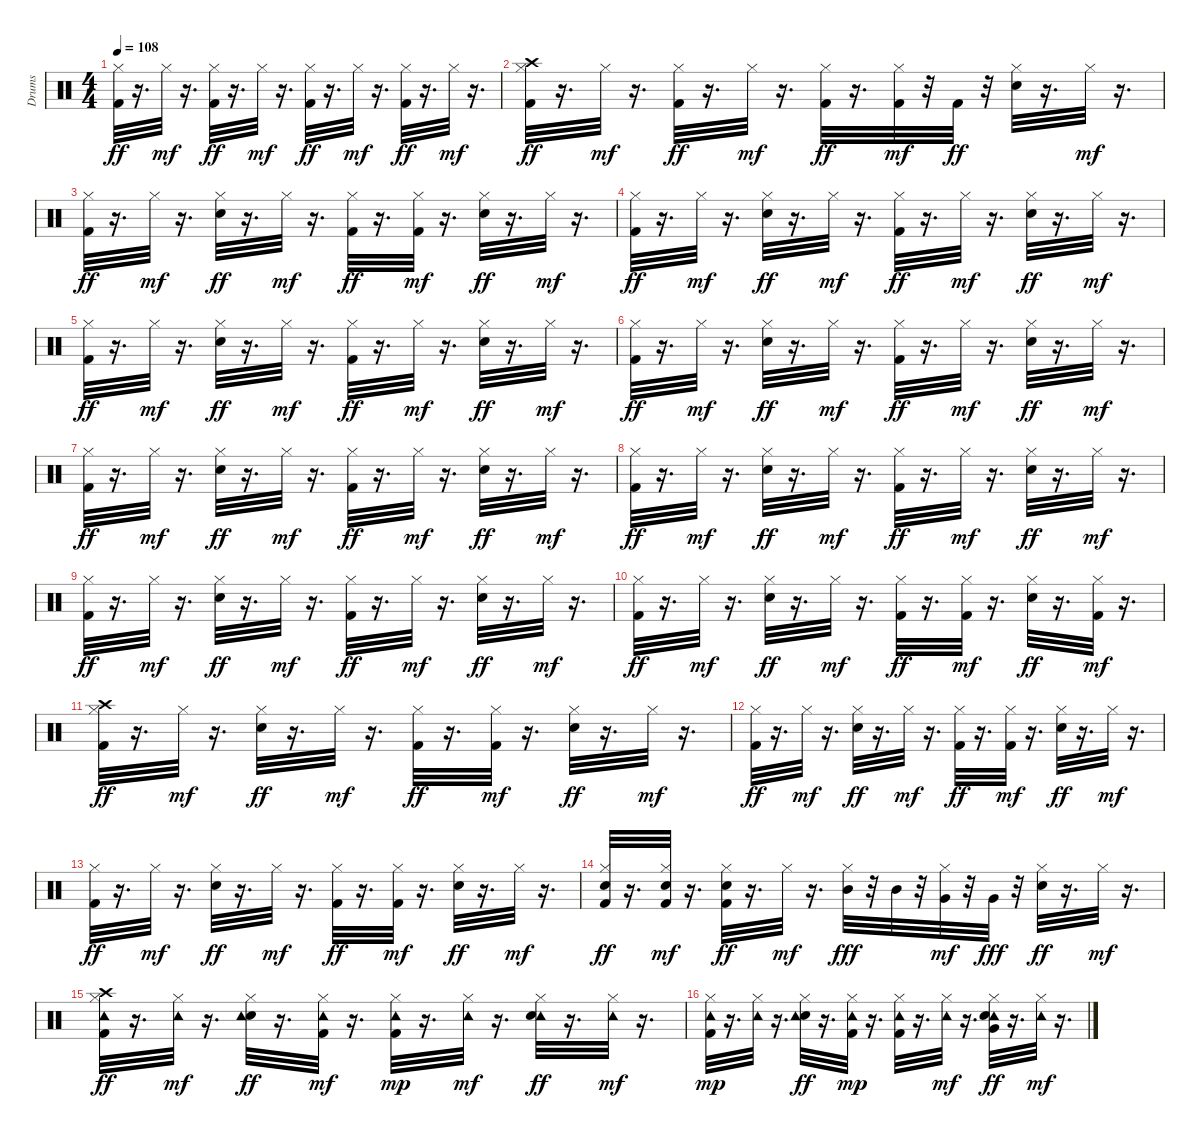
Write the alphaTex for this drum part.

\track ("Drums               " "Drums     ") {instrument percussion}
\staff {score}
\articulation defaults
\ts (4 4)
\tempo 108
\clef neutral
\ks c
("Kick (hit) 2" "Hi-Hat (closed)").32{dy ff} r.16{d} "Hi-Hat (closed)".32{dy mf} r.16{d} ("Kick (hit) 2" "Hi-Hat (closed)").32{dy ff} r.16{d} "Hi-Hat (closed)".32{dy mf} r.16{d} ("Kick (hit) 2" "Hi-Hat (closed)").32{dy ff} r.16{d} "Hi-Hat (closed)".32{dy mf} r.16{d} ("Kick (hit) 2" "Hi-Hat (closed)").32{dy ff} r.16{d} "Hi-Hat (closed)".32{dy mf} r.16{d} |
("Kick (hit) 2" "Hi-Hat (closed)" "Crash high (hit)").32{dy ff} r.16{d} "Hi-Hat (closed)".32{dy mf} r.16{d} ("Kick (hit) 2" "Hi-Hat (closed)").32{dy ff} r.16{d} "Hi-Hat (closed)".32{dy mf} r.16{d} ("Kick (hit) 2" "Hi-Hat (closed)").32{dy ff} r.16{d} ("Kick (hit) 2" "Hi-Hat (closed)").32{dy mf} r.32 "Kick (hit) 2".32{dy ff} r.32 ("Snare (hit) 2" "Hi-Hat (closed)").32 r.16{d} "Hi-Hat (closed)".32{dy mf} r.16{d} |
("Kick (hit) 2" "Hi-Hat (closed)").32{dy ff} r.16{d} "Hi-Hat (closed)".32{dy mf} r.16{d} ("Snare (hit) 2" "Hi-Hat (closed)").32{dy ff} r.16{d} "Hi-Hat (closed)".32{dy mf} r.16{d} ("Hi-Hat (closed)" "Kick (hit) 2").32{dy ff} r.16{d} ("Kick (hit) 2" "Hi-Hat (closed)").32{dy mf} r.16{d} ("Snare (hit) 2" "Hi-Hat (closed)").32{dy ff} r.16{d} "Hi-Hat (closed)".32{dy mf} r.16{d} |
("Kick (hit) 2" "Hi-Hat (closed)").32{dy ff} r.16{d} "Hi-Hat (closed)".32{dy mf} r.16{d} ("Snare (hit) 2" "Hi-Hat (closed)").32{dy ff} r.16{d} "Hi-Hat (closed)".32{dy mf} r.16{d} ("Kick (hit) 2" "Hi-Hat (closed)").32{dy ff} r.16{d} "Hi-Hat (closed)".32{dy mf} r.16{d} ("Snare (hit) 2" "Hi-Hat (closed)").32{dy ff} r.16{d} "Hi-Hat (closed)".32{dy mf} r.16{d} |
("Kick (hit) 2" "Hi-Hat (closed)").32{dy ff} r.16{d} "Hi-Hat (closed)".32{dy mf} r.16{d} ("Snare (hit) 2" "Hi-Hat (closed)").32{dy ff} r.16{d} "Hi-Hat (closed)".32{dy mf} r.16{d} ("Kick (hit) 2" "Hi-Hat (closed)").32{dy ff} r.16{d} "Hi-Hat (closed)".32{dy mf} r.16{d} ("Snare (hit) 2" "Hi-Hat (closed)").32{dy ff} r.16{d} "Hi-Hat (closed)".32{dy mf} r.16{d} |
("Kick (hit) 2" "Hi-Hat (closed)").32{dy ff} r.16{d} "Hi-Hat (closed)".32{dy mf} r.16{d} ("Hi-Hat (closed)" "Snare (hit) 2").32{dy ff} r.16{d} "Hi-Hat (closed)".32{dy mf} r.16{d} ("Kick (hit) 2" "Hi-Hat (closed)").32{dy ff} r.16{d} "Hi-Hat (closed)".32{dy mf} r.16{d} ("Snare (hit) 2" "Hi-Hat (closed)").32{dy ff} r.16{d} "Hi-Hat (closed)".32{dy mf} r.16{d} |
("Kick (hit) 2" "Hi-Hat (closed)").32{dy ff} r.16{d} "Hi-Hat (closed)".32{dy mf} r.16{d} ("Snare (hit) 2" "Hi-Hat (closed)").32{dy ff} r.16{d} "Hi-Hat (closed)".32{dy mf} r.16{d} ("Kick (hit) 2" "Hi-Hat (closed)").32{dy ff} r.16{d} "Hi-Hat (closed)".32{dy mf} r.16{d} ("Snare (hit) 2" "Hi-Hat (closed)").32{dy ff} r.16{d} "Hi-Hat (closed)".32{dy mf} r.16{d} |
("Kick (hit) 2" "Hi-Hat (closed)").32{dy ff} r.16{d} "Hi-Hat (closed)".32{dy mf} r.16{d} ("Snare (hit) 2" "Hi-Hat (closed)").32{dy ff} r.16{d} "Hi-Hat (closed)".32{dy mf} r.16{d} ("Kick (hit) 2" "Hi-Hat (closed)").32{dy ff} r.16{d} "Hi-Hat (closed)".32{dy mf} r.16{d} ("Snare (hit) 2" "Hi-Hat (closed)").32{dy ff} r.16{d} "Hi-Hat (closed)".32{dy mf} r.16{d} |
("Hi-Hat (closed)" "Kick (hit) 2").32{dy ff} r.16{d} "Hi-Hat (closed)".32{dy mf} r.16{d} ("Snare (hit) 2" "Hi-Hat (closed)").32{dy ff} r.16{d} "Hi-Hat (closed)".32{dy mf} r.16{d} ("Kick (hit) 2" "Hi-Hat (closed)").32{dy ff} r.16{d} "Hi-Hat (closed)".32{dy mf} r.16{d} ("Snare (hit) 2" "Hi-Hat (closed)").32{dy ff} r.16{d} "Hi-Hat (closed)".32{dy mf} r.16{d} |
("Kick (hit) 2" "Hi-Hat (closed)").32{dy ff} r.16{d} "Hi-Hat (closed)".32{dy mf} r.16{d} ("Snare (hit) 2" "Hi-Hat (closed)").32{dy ff} r.16{d} "Hi-Hat (closed)".32{dy mf} r.16{d} ("Kick (hit) 2" "Hi-Hat (closed)").32{dy ff} r.16{d} ("Kick (hit) 2" "Hi-Hat (closed)").32{dy mf} r.16{d} ("Snare (hit) 2" "Hi-Hat (closed)").32{dy ff} r.16{d} ("Kick (hit) 2" "Hi-Hat (closed)").32{dy mf} r.16{d} |
("Kick (hit) 2" "Crash high (hit)" "Hi-Hat (closed)").32{dy ff} r.16{d} "Hi-Hat (closed)".32{dy mf} r.16{d} ("Snare (hit) 2" "Hi-Hat (closed)").32{dy ff} r.16{d} "Hi-Hat (closed)".32{dy mf} r.16{d} ("Kick (hit) 2" "Hi-Hat (closed)").32{dy ff} r.16{d} ("Kick (hit) 2" "Hi-Hat (closed)").32{dy mf} r.16{d} ("Hi-Hat (closed)" "Snare (hit) 2").32{dy ff} r.16{d} "Hi-Hat (closed)".32{dy mf} r.16{d} |
("Kick (hit) 2" "Hi-Hat (closed)").32{dy ff} r.16{d} "Hi-Hat (closed)".32{dy mf} r.16{d} ("Snare (hit) 2" "Hi-Hat (closed)").32{dy ff} r.16{d} "Hi-Hat (closed)".32{dy mf} r.16{d} ("Kick (hit) 2" "Hi-Hat (closed)").32{dy ff} r.16{d} ("Kick (hit) 2" "Hi-Hat (closed)").32{dy mf} r.16{d} ("Snare (hit) 2" "Hi-Hat (closed)").32{dy ff} r.16{d} "Hi-Hat (closed)".32{dy mf} r.16{d} |
("Kick (hit) 2" "Hi-Hat (closed)").32{dy ff} r.16{d} "Hi-Hat (closed)".32{dy mf} r.16{d} ("Snare (hit) 2" "Hi-Hat (closed)").32{dy ff} r.16{d} "Hi-Hat (closed)".32{dy mf} r.16{d} ("Kick (hit) 2" "Hi-Hat (closed)").32{dy ff} r.16{d} ("Kick (hit) 2" "Hi-Hat (closed)").32{dy mf} r.16{d} ("Snare (hit) 2" "Hi-Hat (closed)").32{dy ff} r.16{d} "Hi-Hat (closed)".32{dy mf} r.16{d} |
("Kick (hit) 2" "Snare (hit) 2" "Hi-Hat (closed)").32{dy ff} r.16{d} ("Kick (hit) 2" "Snare (hit) 2" "Hi-Hat (closed)").32{dy mf} r.16{d} ("Kick (hit) 2" "Snare (hit) 2" "Hi-Hat (closed)").32{dy ff} r.16{d} "Hi-Hat (closed)".32{dy mf} r.16{d} ("Hi-Hat (closed)" "Mid Tom (hit)").32{dy fff} r.32 "Mid Tom (hit)".32 r.32 ("Very Low Tom (hit)" "Hi-Hat (closed)").32{dy mf} r.32 "Very Low Tom (hit)".32{dy fff} r.32 ("Snare (hit) 2" "Hi-Hat (closed)").32{dy ff} r.16{d} "Hi-Hat (closed)".32{dy mf} r.16{d} |
("Kick (hit) 2" "Crash high (hit)" "Tambourine (hit)" "Hi-Hat (closed)").32{dy ff} r.16{d} ("Tambourine (hit)" "Hi-Hat (closed)").32{dy mf} r.16{d} ("Snare (hit) 2" "Hi-Hat (closed)" "Tambourine (hit)").32{dy ff} r.16{d} ("Tambourine (hit)" "Kick (hit) 2" "Hi-Hat (closed)").32{dy mf} r.16{d} ("Kick (hit) 2" "Hi-Hat (closed)" "Tambourine (hit)").32{dy mp} r.16{d} ("Tambourine (hit)" "Hi-Hat (closed)").32{dy mf} r.16{d} ("Tambourine (hit)" "Snare (hit) 2" "Hi-Hat (closed)").32{dy ff} r.16{d} ("Tambourine (hit)" "Hi-Hat (closed)").32{dy mf} r.16{d} |
("Kick (hit) 2" "Hi-Hat (closed)" "Tambourine (hit)").32{dy mp} r.16{d} ("Hi-Hat (closed)" "Tambourine (hit)").32 r.16{d} ("Snare (hit) 2" "Hi-Hat (closed)" "Tambourine (hit)").32{dy ff} r.16{d} ("Kick (hit) 2" "Hi-Hat (closed)" "Tambourine (hit)").32{dy mp} r.16{d} ("Kick (hit) 2" "Hi-Hat (closed)" "Tambourine (hit)").32 r.16{d} ("Tambourine (hit)" "Hi-Hat (closed)").32{dy mf} r.16{d} ("Tambourine (hit)" "Snare (hit) 2" "Very Low Tom (hit)" "Hi-Hat (closed)").32{dy ff} r.16{d} ("Tambourine (hit)" "Hi-Hat (closed)").32{dy mf} r.16{d}
